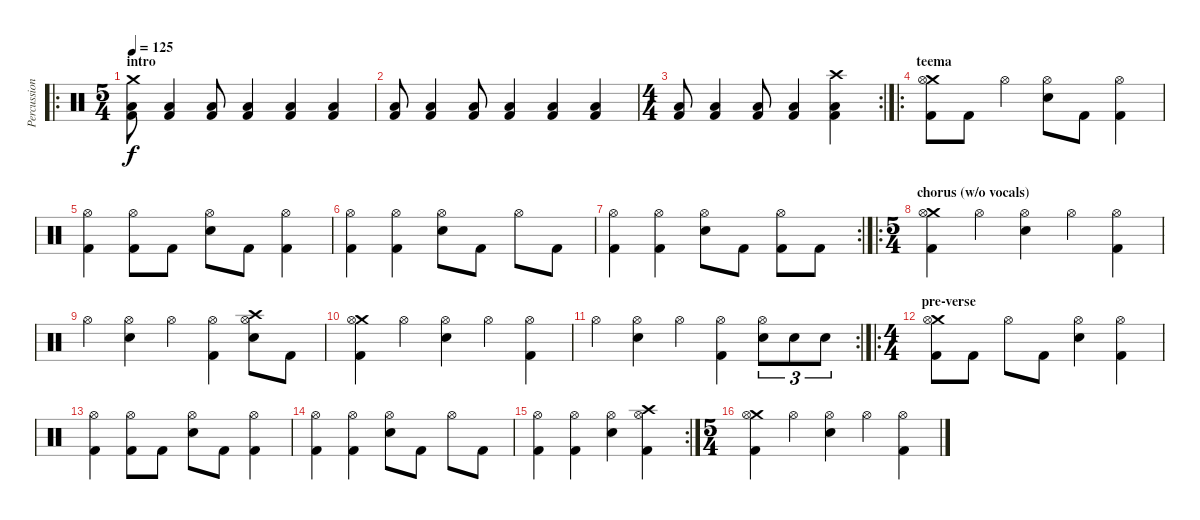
\track ("Percussion" "Percussion") {instrument percussion}
\staff {score}
\articulation defaults
\ro
\ts (5 4)
\section ("" "intro")
\tempo 125
\clef neutral
\ks c
("Crash medium (hit)" "Low Floor Tom (hit)" "Kick (hit) 2").8{dy f} ("Low Floor Tom (hit)" "Kick (hit) 2").4 ("Low Floor Tom (hit)" "Kick (hit) 2").8 ("Low Floor Tom (hit)" "Kick (hit) 2").4 ("Low Floor Tom (hit)" "Kick (hit) 2").4 ("Low Floor Tom (hit)" "Kick (hit) 2").4 |
("Low Floor Tom (hit)" "Kick (hit) 2").8 ("Low Floor Tom (hit)" "Kick (hit) 2").4 ("Low Floor Tom (hit)" "Kick (hit) 2").8 ("Low Floor Tom (hit)" "Kick (hit) 2").4 ("Low Floor Tom (hit)" "Kick (hit) 2").4 ("Low Floor Tom (hit)" "Kick (hit) 2").4 |
\rc 2
\ts (4 4)
("Low Floor Tom (hit)" "Kick (hit) 2").8 ("Low Floor Tom (hit)" "Kick (hit) 2").4 ("Low Floor Tom (hit)" "Kick (hit) 2").8 ("Low Floor Tom (hit)" "Kick (hit) 2").4 ("Crash high (hit)" "Low Floor Tom (hit)" "Kick (hit) 2").4 |
\ro
\section ("" "teema")
("Crash medium (hit)" "Hi-Hat (open)" "Kick (hit) 2").8 "Kick (hit) 2".8 "Hi-Hat (open)".4 ("Hi-Hat (open)" "Electric Snare (hit)").8 "Kick (hit) 2".8 ("Hi-Hat (open)" "Kick (hit) 2").4 |
("Hi-Hat (open)" "Kick (hit) 2").4 ("Hi-Hat (open)" "Kick (hit) 2").8 "Kick (hit) 2".8 ("Hi-Hat (open)" "Electric Snare (hit)").8 "Kick (hit) 2".8 ("Hi-Hat (open)" "Kick (hit) 2").4 |
("Hi-Hat (open)" "Kick (hit) 2").4 ("Hi-Hat (open)" "Kick (hit) 2").4 ("Hi-Hat (open)" "Electric Snare (hit)").8 "Kick (hit) 2".8 "Hi-Hat (open)".8 "Kick (hit) 2".8 |
\rc 2
("Hi-Hat (open)" "Kick (hit) 2").4 ("Hi-Hat (open)" "Kick (hit) 2").4 ("Hi-Hat (open)" "Electric Snare (hit)").8 "Kick (hit) 2".8 ("Hi-Hat (open)" "Kick (hit) 2").8 "Kick (hit) 2".8 |
\ro
\ts (5 4)
\section ("" "chorus (w/o vocals)")
("Crash medium (hit)" "Hi-Hat (open)" "Kick (hit) 2").4 "Hi-Hat (open)".4 ("Hi-Hat (open)" "Electric Snare (hit)").4 "Hi-Hat (open)".4 ("Hi-Hat (open)" "Kick (hit) 2").4 |
"Hi-Hat (open)".4 ("Hi-Hat (open)" "Electric Snare (hit)").4 "Hi-Hat (open)".4 ("Hi-Hat (open)" "Kick (hit) 2").4 ("Crash high (hit)" "Hi-Hat (open)" "Electric Snare (hit)").8 "Kick (hit) 2".8 |
("Crash medium (hit)" "Hi-Hat (open)" "Kick (hit) 2").4 "Hi-Hat (open)".4 ("Hi-Hat (open)" "Electric Snare (hit)").4 "Hi-Hat (open)".4 ("Hi-Hat (open)" "Kick (hit) 2").4 |
\rc 2 "Hi-Hat (open)".4
("Hi-Hat (open)" "Electric Snare (hit)").4 "Hi-Hat (open)".4 ("Hi-Hat (open)" "Kick (hit) 2").4 ("Hi-Hat (open)" "Electric Snare (hit)").8{tu (3 2)} "Electric Snare (hit)".8{tu (3 2)} "Electric Snare (hit)".8{tu (3 2)} |
\ro
\ts (4 4)
\section ("" "pre-verse")
("Crash medium (hit)" "Hi-Hat (open)" "Kick (hit) 2").8 "Kick (hit) 2".8 "Hi-Hat (open)".8 "Kick (hit) 2".8 ("Hi-Hat (open)" "Electric Snare (hit)").4 ("Hi-Hat (open)" "Kick (hit) 2").4 |
("Hi-Hat (open)" "Kick (hit) 2").4 ("Hi-Hat (open)" "Kick (hit) 2").8 "Kick (hit) 2".8 ("Hi-Hat (open)" "Electric Snare (hit)").8 "Kick (hit) 2".8 ("Hi-Hat (open)" "Kick (hit) 2").4 |
("Hi-Hat (open)" "Kick (hit) 2").4 ("Hi-Hat (open)" "Kick (hit) 2").4 ("Hi-Hat (open)" "Electric Snare (hit)").8 "Kick (hit) 2".8 "Hi-Hat (open)".8 "Kick (hit) 2".8 |
\rc 2
("Hi-Hat (open)" "Kick (hit) 2").4 ("Hi-Hat (open)" "Kick (hit) 2").4 ("Hi-Hat (open)" "Electric Snare (hit)").4 ("Crash high (hit)" "Hi-Hat (open)" "Kick (hit) 2").4 |
\ts (5 4)
("Crash medium (hit)" "Hi-Hat (open)" "Kick (hit) 2").4 "Hi-Hat (open)".4 ("Hi-Hat (open)" "Electric Snare (hit)").4 "Hi-Hat (open)".4 ("Hi-Hat (open)" "Kick (hit) 2").4
